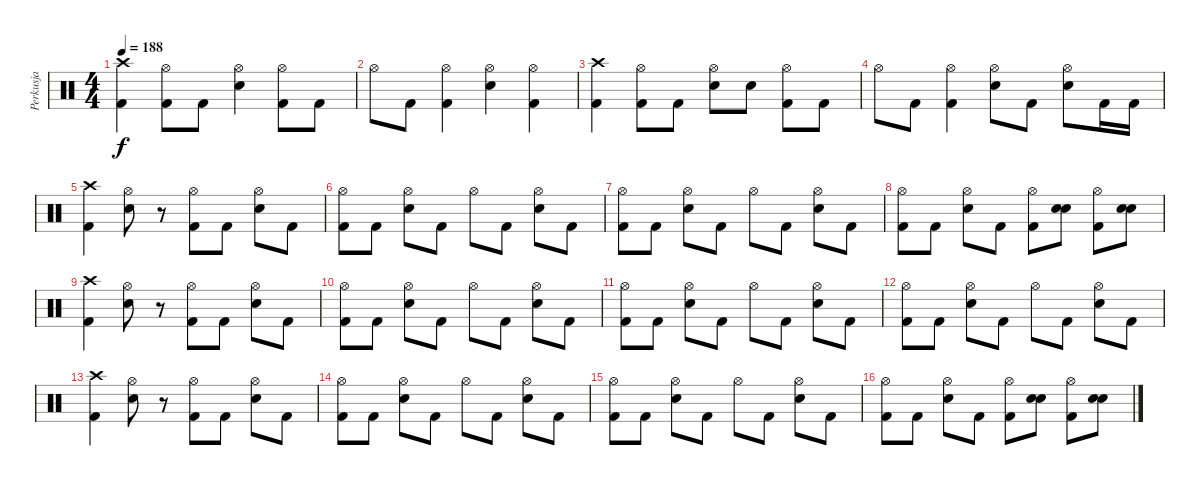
\track ("Perkusja" "Perkusja") {instrument percussion}
\staff {score}
\articulation defaults
\ts (4 4)
\tempo 188
\clef neutral
\ks c
("Crash high (hit)" "Kick (hit) 2").4{dy f} ("Hi-Hat (open)" "Kick (hit) 2").8 "Kick (hit) 2".8 ("Hi-Hat (open)" "Electric Snare (hit)").4 ("Hi-Hat (open)" "Kick (hit) 2").8 "Kick (hit) 2".8 |
"Hi-Hat (open)".8 "Kick (hit) 2".8 ("Hi-Hat (open)" "Kick (hit) 2").4 ("Hi-Hat (open)" "Electric Snare (hit)").4 ("Hi-Hat (open)" "Kick (hit) 2").4 |
("Crash high (hit)" "Kick (hit) 2").4 ("Hi-Hat (open)" "Kick (hit) 2").8 "Kick (hit) 2".8 ("Hi-Hat (open)" "Electric Snare (hit)").8 "Electric Snare (hit)".8 ("Hi-Hat (open)" "Kick (hit) 2").8 "Kick (hit) 2".8 |
"Hi-Hat (open)".8 "Kick (hit) 2".8 ("Hi-Hat (open)" "Kick (hit) 2").4 ("Hi-Hat (open)" "Electric Snare (hit)").8 "Kick (hit) 2".8 ("Hi-Hat (open)" "Electric Snare (hit)").8 "Kick (hit) 2".16 "Kick (hit) 2".16 |
("Crash high (hit)" "Kick (hit) 2").4 ("Hi-Hat (open)" "Electric Snare (hit)").8 r.8 ("Hi-Hat (open)" "Kick (hit) 2").8 "Kick (hit) 2".8 ("Hi-Hat (open)" "Electric Snare (hit)").8 "Kick (hit) 2".8 |
("Hi-Hat (open)" "Kick (hit) 2").8 "Kick (hit) 2".8 ("Hi-Hat (open)" "Electric Snare (hit)").8 "Kick (hit) 2".8 "Hi-Hat (open)".8 "Kick (hit) 2".8 ("Hi-Hat (open)" "Electric Snare (hit)").8 "Kick (hit) 2".8 |
("Hi-Hat (open)" "Kick (hit) 2").8 "Kick (hit) 2".8 ("Hi-Hat (open)" "Electric Snare (hit)").8 "Kick (hit) 2".8 "Hi-Hat (open)".8 "Kick (hit) 2".8 ("Hi-Hat (open)" "Electric Snare (hit)").8 "Kick (hit) 2".8 |
("Hi-Hat (open)" "Kick (hit) 2").8 "Kick (hit) 2".8 ("Hi-Hat (open)" "Electric Snare (hit)").8 "Kick (hit) 2".8 ("Hi-Hat (open)" "Kick (hit) 2").8 ("Electric Snare (hit)" "Electric Snare (hit)").8 ("Hi-Hat (open)" "Kick (hit) 2").8 ("Electric Snare (hit)" "Electric Snare (hit)").8 |
("Crash high (hit)" "Kick (hit) 2").4 ("Hi-Hat (open)" "Electric Snare (hit)").8 r.8 ("Hi-Hat (open)" "Kick (hit) 2").8 "Kick (hit) 2".8 ("Hi-Hat (open)" "Electric Snare (hit)").8 "Kick (hit) 2".8 |
("Hi-Hat (open)" "Kick (hit) 2").8 "Kick (hit) 2".8 ("Hi-Hat (open)" "Electric Snare (hit)").8 "Kick (hit) 2".8 "Hi-Hat (open)".8 "Kick (hit) 2".8 ("Hi-Hat (open)" "Electric Snare (hit)").8 "Kick (hit) 2".8 |
("Hi-Hat (open)" "Kick (hit) 2").8 "Kick (hit) 2".8 ("Hi-Hat (open)" "Electric Snare (hit)").8 "Kick (hit) 2".8 "Hi-Hat (open)".8 "Kick (hit) 2".8 ("Hi-Hat (open)" "Electric Snare (hit)").8 "Kick (hit) 2".8 |
("Hi-Hat (open)" "Kick (hit) 2").8 "Kick (hit) 2".8 ("Hi-Hat (open)" "Electric Snare (hit)").8 "Kick (hit) 2".8 "Hi-Hat (open)".8 "Kick (hit) 2".8 ("Hi-Hat (open)" "Electric Snare (hit)").8 "Kick (hit) 2".8 |
("Crash high (hit)" "Kick (hit) 2").4 ("Hi-Hat (open)" "Electric Snare (hit)").8 r.8 ("Hi-Hat (open)" "Kick (hit) 2").8 "Kick (hit) 2".8 ("Hi-Hat (open)" "Electric Snare (hit)").8 "Kick (hit) 2".8 |
("Hi-Hat (open)" "Kick (hit) 2").8 "Kick (hit) 2".8 ("Hi-Hat (open)" "Electric Snare (hit)").8 "Kick (hit) 2".8 "Hi-Hat (open)".8 "Kick (hit) 2".8 ("Hi-Hat (open)" "Electric Snare (hit)").8 "Kick (hit) 2".8 |
("Hi-Hat (open)" "Kick (hit) 2").8 "Kick (hit) 2".8 ("Hi-Hat (open)" "Electric Snare (hit)").8 "Kick (hit) 2".8 "Hi-Hat (open)".8 "Kick (hit) 2".8 ("Hi-Hat (open)" "Electric Snare (hit)").8 "Kick (hit) 2".8 |
("Hi-Hat (open)" "Kick (hit) 2").8 "Kick (hit) 2".8 ("Hi-Hat (open)" "Electric Snare (hit)").8 "Kick (hit) 2".8 ("Hi-Hat (open)" "Kick (hit) 2").8 ("Electric Snare (hit)" "Electric Snare (hit)").8 ("Hi-Hat (open)" "Kick (hit) 2").8 ("Electric Snare (hit)" "Electric Snare (hit)").8
